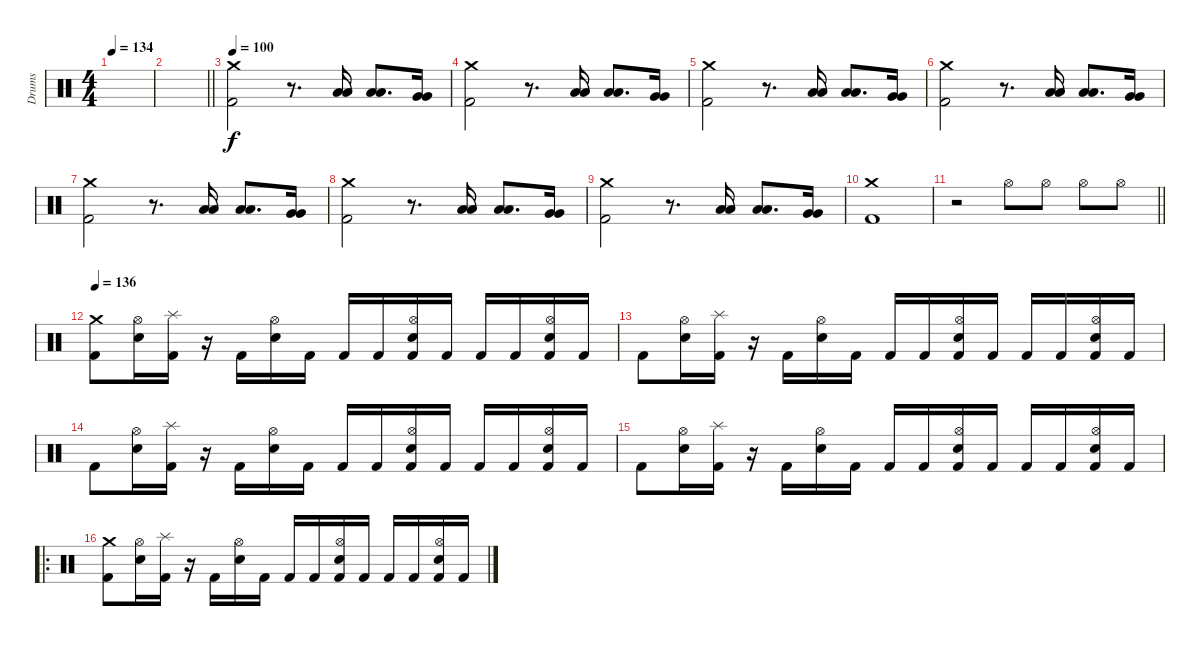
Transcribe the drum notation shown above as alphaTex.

\track ("Drums" "Drums") {instrument percussion}
\staff {score}
\articulation defaults
\ts (4 4)
\tempo 134
\clef neutral
\ks c
|
\barLineRight lightlight
|
\tempo 100
("Crash medium (hit)" "Kick (hit) 2").2 r.8{d} ("Low Tom (hit)" "Low Tom (hit)").16 ("Low Tom (hit)" "Low Tom (hit)").8{d} ("Very Low Tom (hit)" "Very Low Tom (hit)").16 |
("Crash medium (hit)" "Kick (hit) 2").2 r.8{d} ("Low Tom (hit)" "Low Tom (hit)").16 ("Low Tom (hit)" "Low Tom (hit)").8{d} ("Very Low Tom (hit)" "Very Low Tom (hit)").16 |
("Crash medium (hit)" "Kick (hit) 2").2 r.8{d} ("Low Tom (hit)" "Low Tom (hit)").16 ("Low Tom (hit)" "Low Tom (hit)").8{d} ("Very Low Tom (hit)" "Very Low Tom (hit)").16 |
("Crash medium (hit)" "Kick (hit) 2").2 r.8{d} ("Low Tom (hit)" "Low Tom (hit)").16 ("Low Tom (hit)" "Low Tom (hit)").8{d} ("Very Low Tom (hit)" "Very Low Tom (hit)").16 |
("Crash medium (hit)" "Kick (hit) 2").2 r.8{d} ("Low Tom (hit)" "Low Tom (hit)").16 ("Low Tom (hit)" "Low Tom (hit)").8{d} ("Very Low Tom (hit)" "Very Low Tom (hit)").16 |
("Crash medium (hit)" "Kick (hit) 2").2 r.8{d} ("Low Tom (hit)" "Low Tom (hit)").16 ("Low Tom (hit)" "Low Tom (hit)").8{d} ("Very Low Tom (hit)" "Very Low Tom (hit)").16 |
("Crash medium (hit)" "Kick (hit) 2").2 r.8{d} ("Low Tom (hit)" "Low Tom (hit)").16 ("Low Tom (hit)" "Low Tom (hit)").8{d} ("Very Low Tom (hit)" "Very Low Tom (hit)").16 |
("Crash medium (hit)" "Kick (hit) 2").1 |
\barLineRight lightlight
r.2 "Hi-Hat (open)".8 "Hi-Hat (open)".8 "Hi-Hat (open)".8 "Hi-Hat (open)".8 |
\tempo 136
("Crash medium (hit)" "Kick (hit) 2").8 ("Hi-Hat (open)" "Electric Snare (hit)").16 ("Splash (hit)" "Kick (hit) 2").16 r.16 "Kick (hit) 2".16 ("Hi-Hat (open)" "Electric Snare (hit)").16 "Kick (hit) 2".16 "Kick (hit) 2".16 "Kick (hit) 2".16 ("Hi-Hat (open)" "Electric Snare (hit)" "Kick (hit) 2").16 "Kick (hit) 2".16 "Kick (hit) 2".16 "Kick (hit) 2".16 ("Hi-Hat (open)" "Electric Snare (hit)" "Kick (hit) 2").16 "Kick (hit) 2".16 |
"Kick (hit) 2".8 ("Hi-Hat (open)" "Electric Snare (hit)").16 ("Splash (hit)" "Kick (hit) 2").16 r.16 "Kick (hit) 2".16 ("Hi-Hat (open)" "Electric Snare (hit)").16 "Kick (hit) 2".16 "Kick (hit) 2".16 "Kick (hit) 2".16 ("Hi-Hat (open)" "Electric Snare (hit)" "Kick (hit) 2").16 "Kick (hit) 2".16 "Kick (hit) 2".16 "Kick (hit) 2".16 ("Hi-Hat (open)" "Electric Snare (hit)" "Kick (hit) 2").16 "Kick (hit) 2".16 |
"Kick (hit) 2".8 ("Hi-Hat (open)" "Electric Snare (hit)").16 ("Splash (hit)" "Kick (hit) 2").16 r.16 "Kick (hit) 2".16 ("Hi-Hat (open)" "Electric Snare (hit)").16 "Kick (hit) 2".16 "Kick (hit) 2".16 "Kick (hit) 2".16 ("Hi-Hat (open)" "Electric Snare (hit)" "Kick (hit) 2").16 "Kick (hit) 2".16 "Kick (hit) 2".16 "Kick (hit) 2".16 ("Hi-Hat (open)" "Electric Snare (hit)" "Kick (hit) 2").16 "Kick (hit) 2".16 |
"Kick (hit) 2".8 ("Hi-Hat (open)" "Electric Snare (hit)").16 ("Splash (hit)" "Kick (hit) 2").16 r.16 "Kick (hit) 2".16 ("Hi-Hat (open)" "Electric Snare (hit)").16 "Kick (hit) 2".16 "Kick (hit) 2".16 "Kick (hit) 2".16 ("Hi-Hat (open)" "Electric Snare (hit)" "Kick (hit) 2").16 "Kick (hit) 2".16 "Kick (hit) 2".16 "Kick (hit) 2".16 ("Hi-Hat (open)" "Electric Snare (hit)" "Kick (hit) 2").16 "Kick (hit) 2".16 |
\ro
("Crash medium (hit)" "Kick (hit) 2").8 ("Hi-Hat (open)" "Electric Snare (hit)").16 ("Splash (hit)" "Kick (hit) 2").16 r.16 "Kick (hit) 2".16 ("Hi-Hat (open)" "Electric Snare (hit)").16 "Kick (hit) 2".16 "Kick (hit) 2".16 "Kick (hit) 2".16 ("Hi-Hat (open)" "Electric Snare (hit)" "Kick (hit) 2").16 "Kick (hit) 2".16 "Kick (hit) 2".16 "Kick (hit) 2".16 ("Hi-Hat (open)" "Electric Snare (hit)" "Kick (hit) 2").16 "Kick (hit) 2".16
